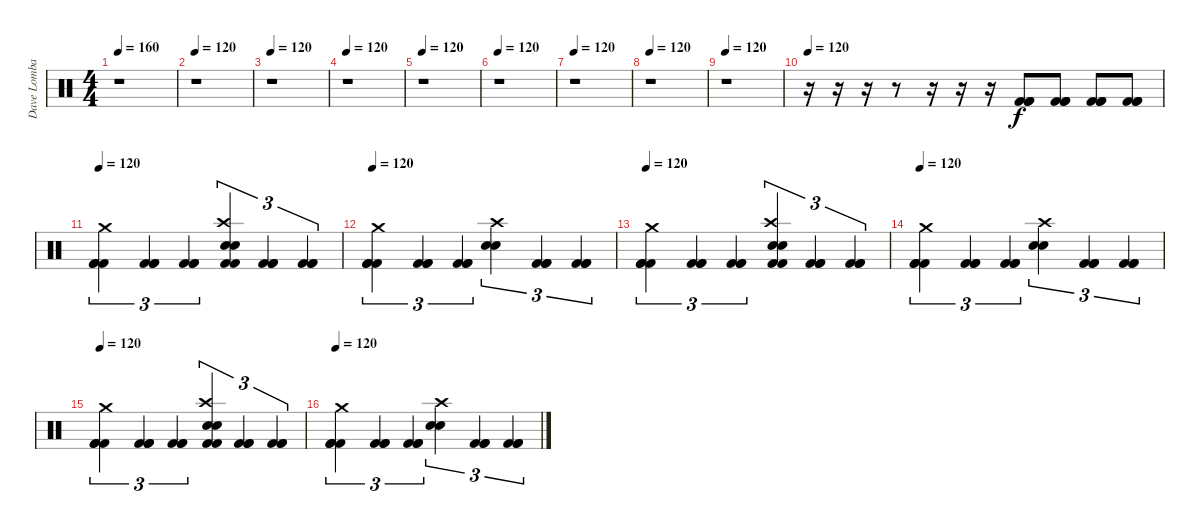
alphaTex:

\track ("Dave Lombardo" "Dave Lomba") {instrument percussion}
\staff {score}
\articulation defaults
\ts (4 4)
\tempo 160
\tempo 120
\tempo 160
\clef neutral
\ks c
r.1{dy f} |
\tempo 120
r.1 |
\tempo 120
r.1 |
\tempo 120
r.1 |
\tempo 120
r.1 |
\tempo 120
r.1 |
\tempo 120
r.1 |
\tempo 120
r.1 |
\tempo 120
r.1 |
\tempo 120
r.16 r.16 r.16 r.8 r.16 r.16 r.16 ("Kick (hit) 2" "Kick (hit) 2" "Kick (hit) 2").8 ("Kick (hit) 2" "Kick (hit) 2" "Kick (hit) 2").8 ("Kick (hit) 2" "Kick (hit) 2" "Kick (hit) 2").8 ("Kick (hit) 2" "Kick (hit) 2" "Kick (hit) 2").8 |
\tempo 110
\tempo 120
("Crash medium (hit)" "Kick (hit) 2" "Kick (hit) 2" "Kick (hit) 2").4{tu (3 2)} ("Kick (hit) 2" "Kick (hit) 2" "Kick (hit) 2").4{tu (3 2)} ("Kick (hit) 2" "Kick (hit) 2" "Kick (hit) 2").4{tu (3 2)} ("Crash high (hit)" "Snare (hit) 2" "Snare (hit) 2" "Kick (hit) 2" "Kick (hit) 2").4{tu (3 2)} ("Kick (hit) 2" "Kick (hit) 2" "Kick (hit) 2").4{tu (3 2)} ("Kick (hit) 2" "Kick (hit) 2" "Kick (hit) 2").4{tu (3 2)} |
\tempo 120
("Crash medium (hit)" "Kick (hit) 2" "Kick (hit) 2" "Kick (hit) 2").4{tu (3 2)} ("Kick (hit) 2" "Kick (hit) 2" "Kick (hit) 2").4{tu (3 2)} ("Kick (hit) 2" "Kick (hit) 2" "Kick (hit) 2").4{tu (3 2)} ("Crash high (hit)" "Snare (hit) 2" "Snare (hit) 2").4{tu (3 2)} ("Kick (hit) 2" "Kick (hit) 2" "Kick (hit) 2").4{tu (3 2)} ("Kick (hit) 2" "Kick (hit) 2" "Kick (hit) 2").4{tu (3 2)} |
\tempo 120
("Crash medium (hit)" "Kick (hit) 2" "Kick (hit) 2" "Kick (hit) 2").4{tu (3 2)} ("Kick (hit) 2" "Kick (hit) 2" "Kick (hit) 2").4{tu (3 2)} ("Kick (hit) 2" "Kick (hit) 2" "Kick (hit) 2").4{tu (3 2)} ("Crash high (hit)" "Snare (hit) 2" "Snare (hit) 2" "Kick (hit) 2" "Kick (hit) 2").4{tu (3 2)} ("Kick (hit) 2" "Kick (hit) 2" "Kick (hit) 2").4{tu (3 2)} ("Kick (hit) 2" "Kick (hit) 2" "Kick (hit) 2").4{tu (3 2)} |
\tempo 120
("Crash medium (hit)" "Kick (hit) 2" "Kick (hit) 2" "Kick (hit) 2").4{tu (3 2)} ("Kick (hit) 2" "Kick (hit) 2" "Kick (hit) 2").4{tu (3 2)} ("Kick (hit) 2" "Kick (hit) 2" "Kick (hit) 2").4{tu (3 2)} ("Crash high (hit)" "Snare (hit) 2" "Snare (hit) 2").4{tu (3 2)} ("Kick (hit) 2" "Kick (hit) 2" "Kick (hit) 2").4{tu (3 2)} ("Kick (hit) 2" "Kick (hit) 2" "Kick (hit) 2").4{tu (3 2)} |
\tempo 120
("Crash medium (hit)" "Kick (hit) 2" "Kick (hit) 2" "Kick (hit) 2").4{tu (3 2)} ("Kick (hit) 2" "Kick (hit) 2" "Kick (hit) 2").4{tu (3 2)} ("Kick (hit) 2" "Kick (hit) 2" "Kick (hit) 2").4{tu (3 2)} ("Crash high (hit)" "Snare (hit) 2" "Snare (hit) 2" "Kick (hit) 2" "Kick (hit) 2").4{tu (3 2)} ("Kick (hit) 2" "Kick (hit) 2" "Kick (hit) 2").4{tu (3 2)} ("Kick (hit) 2" "Kick (hit) 2" "Kick (hit) 2").4{tu (3 2)} |
\tempo 120
("Crash medium (hit)" "Kick (hit) 2" "Kick (hit) 2" "Kick (hit) 2").4{tu (3 2)} ("Kick (hit) 2" "Kick (hit) 2" "Kick (hit) 2").4{tu (3 2)} ("Kick (hit) 2" "Kick (hit) 2" "Kick (hit) 2").4{tu (3 2)} ("Crash high (hit)" "Snare (hit) 2" "Snare (hit) 2").4{tu (3 2)} ("Kick (hit) 2" "Kick (hit) 2" "Kick (hit) 2").4{tu (3 2)} ("Kick (hit) 2" "Kick (hit) 2" "Kick (hit) 2").4{tu (3 2)}
